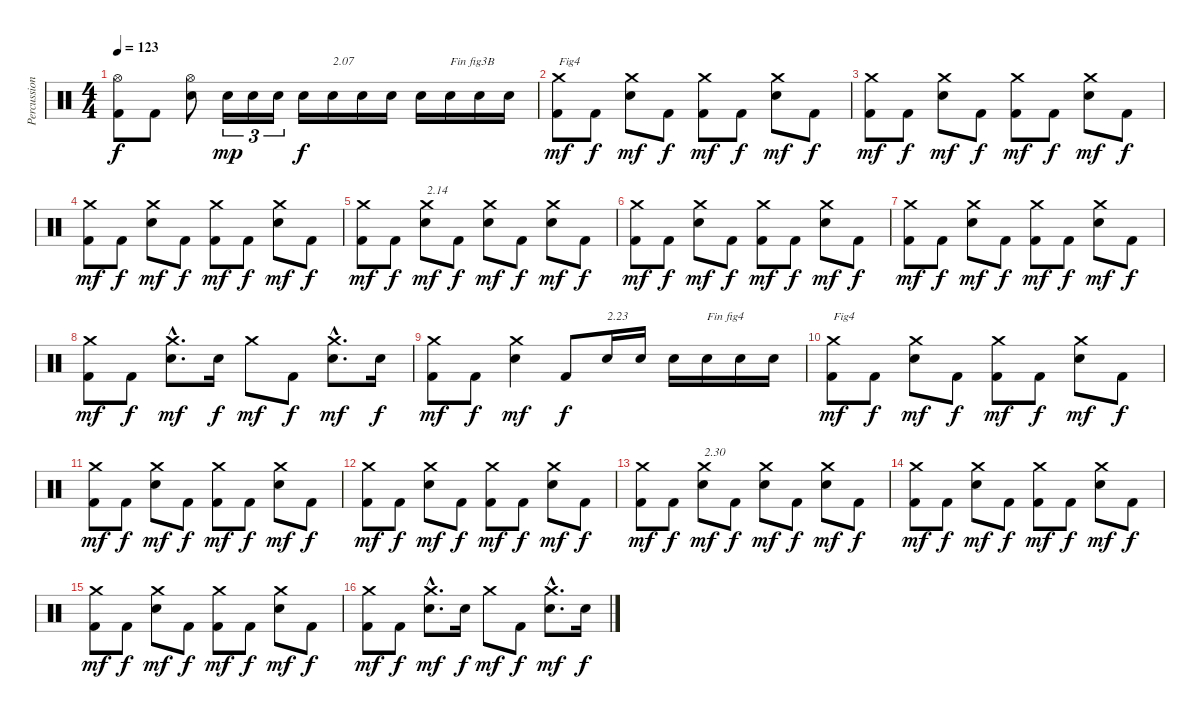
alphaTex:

\track ("Percussions" "Percussion") {instrument percussion}
\staff {score}
\articulation defaults
\ts (4 4)
\tempo 123
\clef neutral
\ks c
("Kick (hit) 2" "Hi-Hat (open)").8{dy f} "Kick (hit) 2".8 ("Electric Snare (hit)" "Hi-Hat (open)").8 "Electric Snare (hit)".16{tu (3 2) dy mp} "Electric Snare (hit)".16{tu (3 2)} "Electric Snare (hit)".16{tu (3 2)} "Electric Snare (hit)".16{dy f} "Electric Snare (hit)".16{txt "2.07"} "Electric Snare (hit)".16 "Electric Snare (hit)".16 "Electric Snare (hit)".16 "Electric Snare (hit)".16{txt "Fin fig3B"} "Electric Snare (hit)".16 "Electric Snare (hit)".16 |
("Kick (hit) 2" "Crash medium (hit)").8{txt "Fig4" dy mf} "Kick (hit) 2".8{dy f} ("Electric Snare (hit)" "Crash medium (hit)").8{dy mf} "Kick (hit) 2".8{dy f} ("Kick (hit) 2" "Crash medium (hit)").8{dy mf} "Kick (hit) 2".8{dy f} ("Electric Snare (hit)" "Crash medium (hit)").8{dy mf} "Kick (hit) 2".8{dy f} |
("Kick (hit) 2" "Crash medium (hit)").8{dy mf} "Kick (hit) 2".8{dy f} ("Electric Snare (hit)" "Crash medium (hit)").8{dy mf} "Kick (hit) 2".8{dy f} ("Kick (hit) 2" "Crash medium (hit)").8{dy mf} "Kick (hit) 2".8{dy f} ("Electric Snare (hit)" "Crash medium (hit)").8{dy mf} "Kick (hit) 2".8{dy f} |
("Kick (hit) 2" "Crash medium (hit)").8{dy mf} "Kick (hit) 2".8{dy f} ("Electric Snare (hit)" "Crash medium (hit)").8{dy mf} "Kick (hit) 2".8{dy f} ("Kick (hit) 2" "Crash medium (hit)").8{dy mf} "Kick (hit) 2".8{dy f} ("Electric Snare (hit)" "Crash medium (hit)").8{dy mf} "Kick (hit) 2".8{dy f} |
("Kick (hit) 2" "Crash medium (hit)").8{dy mf} "Kick (hit) 2".8{dy f} ("Electric Snare (hit)" "Crash medium (hit)").8{txt "2.14" dy mf} "Kick (hit) 2".8{dy f} ("Electric Snare (hit)" "Crash medium (hit)").8{dy mf} "Kick (hit) 2".8{dy f} ("Electric Snare (hit)" "Crash medium (hit)").8{dy mf} "Kick (hit) 2".8{dy f} |
("Kick (hit) 2" "Crash medium (hit)").8{dy mf} "Kick (hit) 2".8{dy f} ("Electric Snare (hit)" "Crash medium (hit)").8{dy mf} "Kick (hit) 2".8{dy f} ("Kick (hit) 2" "Crash medium (hit)").8{dy mf} "Kick (hit) 2".8{dy f} ("Electric Snare (hit)" "Crash medium (hit)").8{dy mf} "Kick (hit) 2".8{dy f} |
("Kick (hit) 2" "Crash medium (hit)").8{dy mf} "Kick (hit) 2".8{dy f} ("Electric Snare (hit)" "Crash medium (hit)").8{dy mf} "Kick (hit) 2".8{dy f} ("Kick (hit) 2" "Crash medium (hit)").8{dy mf} "Kick (hit) 2".8{dy f} ("Electric Snare (hit)" "Crash medium (hit)").8{dy mf} "Kick (hit) 2".8{dy f} |
("Kick (hit) 2" "Crash medium (hit)").8{dy mf} "Kick (hit) 2".8{dy f} ("Electric Snare (hit)"{hac} "Crash medium (hit)"{hac}).8{d dy mf} "Electric Snare (hit)".16{dy f} "Crash medium (hit)".8{dy mf} "Kick (hit) 2".8{dy f} ("Electric Snare (hit)"{hac} "Crash medium (hit)"{hac}).8{d dy mf} "Electric Snare (hit)".16{dy f} |
("Kick (hit) 2" "Crash medium (hit)").8{dy mf} "Kick (hit) 2".8{dy f} ("Electric Snare (hit)" "Crash medium (hit)").4{dy mf} "Kick (hit) 2".8{dy f} "Electric Snare (hit)".16{txt "2.23"} "Electric Snare (hit)".16 "Electric Snare (hit)".16 "Electric Snare (hit)".16{txt "Fin fig4"} "Electric Snare (hit)".16 "Electric Snare (hit)".16 |
("Kick (hit) 2" "Crash medium (hit)").8{txt "Fig4" dy mf} "Kick (hit) 2".8{dy f} ("Electric Snare (hit)" "Crash medium (hit)").8{dy mf} "Kick (hit) 2".8{dy f} ("Kick (hit) 2" "Crash medium (hit)").8{dy mf} "Kick (hit) 2".8{dy f} ("Electric Snare (hit)" "Crash medium (hit)").8{dy mf} "Kick (hit) 2".8{dy f} |
("Kick (hit) 2" "Crash medium (hit)").8{dy mf} "Kick (hit) 2".8{dy f} ("Electric Snare (hit)" "Crash medium (hit)").8{dy mf} "Kick (hit) 2".8{dy f} ("Kick (hit) 2" "Crash medium (hit)").8{dy mf} "Kick (hit) 2".8{dy f} ("Electric Snare (hit)" "Crash medium (hit)").8{dy mf} "Kick (hit) 2".8{dy f} |
("Kick (hit) 2" "Crash medium (hit)").8{dy mf} "Kick (hit) 2".8{dy f} ("Electric Snare (hit)" "Crash medium (hit)").8{dy mf} "Kick (hit) 2".8{dy f} ("Kick (hit) 2" "Crash medium (hit)").8{dy mf} "Kick (hit) 2".8{dy f} ("Electric Snare (hit)" "Crash medium (hit)").8{dy mf} "Kick (hit) 2".8{dy f} |
("Kick (hit) 2" "Crash medium (hit)").8{dy mf} "Kick (hit) 2".8{dy f} ("Electric Snare (hit)" "Crash medium (hit)").8{txt "2.30" dy mf} "Kick (hit) 2".8{dy f} ("Electric Snare (hit)" "Crash medium (hit)").8{dy mf} "Kick (hit) 2".8{dy f} ("Electric Snare (hit)" "Crash medium (hit)").8{dy mf} "Kick (hit) 2".8{dy f} |
("Kick (hit) 2" "Crash medium (hit)").8{dy mf} "Kick (hit) 2".8{dy f} ("Electric Snare (hit)" "Crash medium (hit)").8{dy mf} "Kick (hit) 2".8{dy f} ("Kick (hit) 2" "Crash medium (hit)").8{dy mf} "Kick (hit) 2".8{dy f} ("Electric Snare (hit)" "Crash medium (hit)").8{dy mf} "Kick (hit) 2".8{dy f} |
("Kick (hit) 2" "Crash medium (hit)").8{dy mf} "Kick (hit) 2".8{dy f} ("Electric Snare (hit)" "Crash medium (hit)").8{dy mf} "Kick (hit) 2".8{dy f} ("Kick (hit) 2" "Crash medium (hit)").8{dy mf} "Kick (hit) 2".8{dy f} ("Electric Snare (hit)" "Crash medium (hit)").8{dy mf} "Kick (hit) 2".8{dy f} |
("Kick (hit) 2" "Crash medium (hit)").8{dy mf} "Kick (hit) 2".8{dy f} ("Electric Snare (hit)"{hac} "Crash medium (hit)"{hac}).8{d dy mf} "Electric Snare (hit)".16{dy f} "Crash medium (hit)".8{dy mf} "Kick (hit) 2".8{dy f} ("Electric Snare (hit)"{hac} "Crash medium (hit)"{hac}).8{d dy mf} "Electric Snare (hit)".16{dy f}
